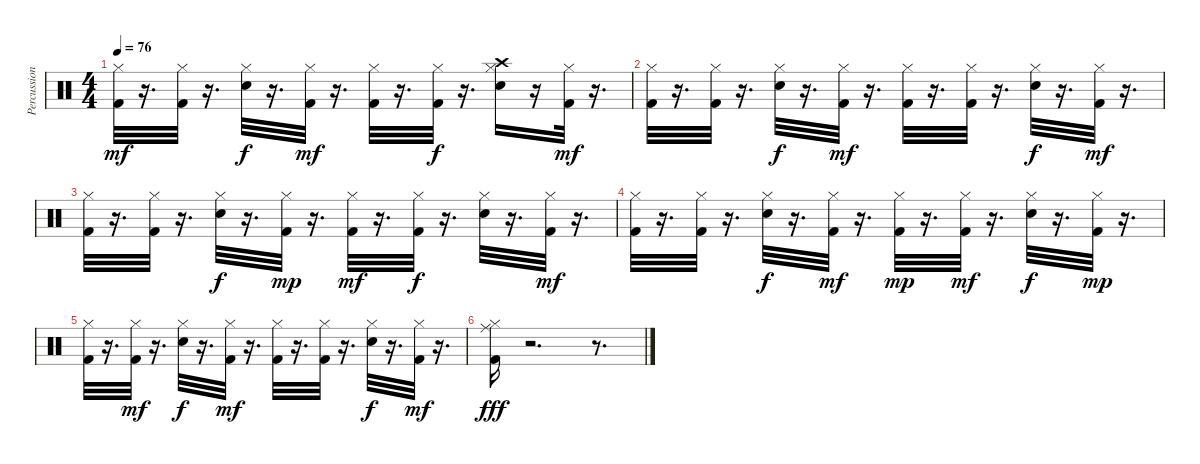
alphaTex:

\track ("Percussion Fill" "Percussion") {instrument percussion}
\staff {score}
\articulation defaults
\ts (4 4)
\tempo 76
\clef neutral
\ks c
("Kick (hit) 2" "Hi-Hat (closed)").32{dy mf} r.16{d} ("Kick (hit) 2" "Hi-Hat (closed)").32 r.16{d} ("Snare (hit) 2" "Hi-Hat (closed)").32{dy f} r.16{d} ("Kick (hit) 2" "Hi-Hat (closed)").32{dy mf} r.16{d} ("Kick (hit) 2" "Hi-Hat (closed)").32 r.16{d} ("Kick (hit) 2" "Hi-Hat (closed)").32{dy f} r.16{d} ("Snare (hit) 2" "Hi-Hat (closed)" "Crash high (hit)").16 r.16 ("Kick (hit) 2" "Hi-Hat (closed)").32{dy mf} r.16{d} |
("Kick (hit) 2" "Hi-Hat (closed)").32 r.16{d} ("Kick (hit) 2" "Hi-Hat (closed)").32 r.16{d} ("Snare (hit) 2" "Hi-Hat (closed)").32{dy f} r.16{d} ("Kick (hit) 2" "Hi-Hat (closed)").32{dy mf} r.16{d} ("Kick (hit) 2" "Hi-Hat (closed)").32 r.16{d} ("Kick (hit) 2" "Hi-Hat (closed)").32 r.16{d} ("Snare (hit) 2" "Hi-Hat (closed)").32{dy f} r.16{d} ("Kick (hit) 2" "Hi-Hat (closed)").32{dy mf} r.16{d} |
("Kick (hit) 2" "Hi-Hat (closed)").32 r.16{d} ("Kick (hit) 2" "Hi-Hat (closed)").32 r.16{d} ("Snare (hit) 2" "Hi-Hat (closed)").32{dy f} r.16{d} ("Kick (hit) 2" "Hi-Hat (closed)").32{dy mp} r.16{d} ("Kick (hit) 2" "Hi-Hat (closed)").32{dy mf} r.16{d} ("Kick (hit) 2" "Hi-Hat (closed)").32{dy f} r.16{d} ("Snare (hit) 2" "Hi-Hat (closed)").32 r.16{d} ("Kick (hit) 2" "Hi-Hat (closed)").32{dy mf} r.16{d} |
("Kick (hit) 2" "Hi-Hat (closed)").32 r.16{d} ("Kick (hit) 2" "Hi-Hat (closed)").32 r.16{d} ("Snare (hit) 2" "Hi-Hat (closed)").32{dy f} r.16{d} ("Kick (hit) 2" "Hi-Hat (closed)").32{dy mf} r.16{d} ("Kick (hit) 2" "Hi-Hat (closed)").32{dy mp} r.16{d} ("Kick (hit) 2" "Hi-Hat (closed)").32{dy mf} r.16{d} ("Snare (hit) 2" "Hi-Hat (closed)").32{dy f} r.16{d} ("Kick (hit) 2" "Hi-Hat (closed)").32{dy mp} r.16{d} |
("Kick (hit) 2" "Hi-Hat (closed)").32 r.16{d} ("Kick (hit) 2" "Hi-Hat (closed)").32{dy mf} r.16{d} ("Snare (hit) 2" "Hi-Hat (closed)").32{dy f} r.16{d} ("Kick (hit) 2" "Hi-Hat (closed)").32{dy mf} r.16{d} ("Kick (hit) 2" "Hi-Hat (closed)").32 r.16{d} ("Kick (hit) 2" "Hi-Hat (closed)").32 r.16{d} ("Snare (hit) 2" "Hi-Hat (closed)").32{dy f} r.16{d} ("Kick (hit) 2" "Hi-Hat (closed)").32{dy mf} r.16{d} |
("Kick (hit) 2" "Hi-Hat (closed)" "Ride (middle)").16{dy fff} r.2{d} r.8{d}
